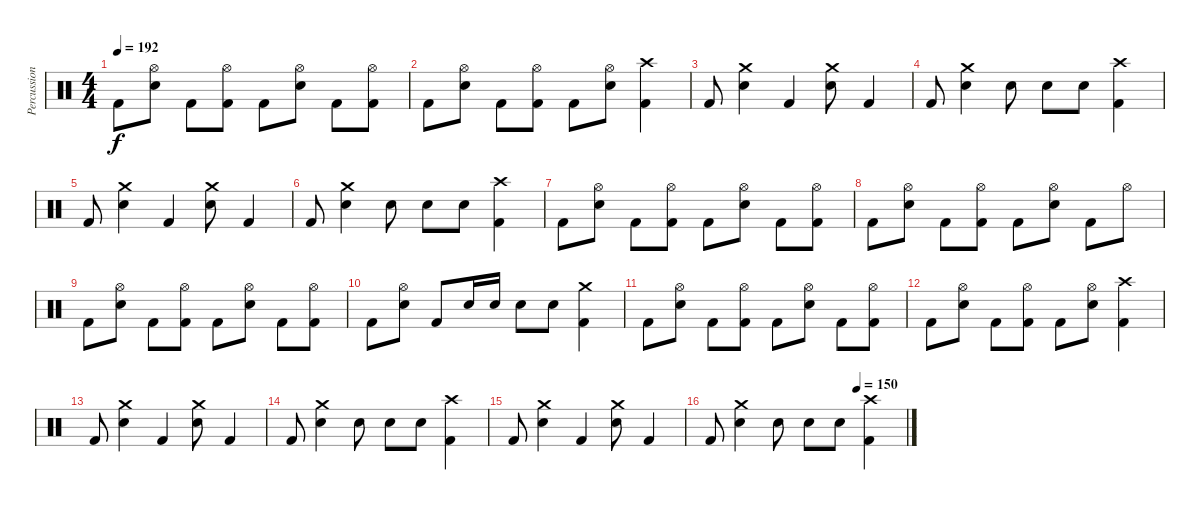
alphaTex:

\track ("Percussion" "Percussion") {instrument percussion}
\staff {score}
\articulation defaults
\ts (4 4)
\tempo 192
\clef neutral
\ks c "Kick (hit) 2".8{dy f}
("Hi-Hat (open)" "Electric Snare (hit)").8 "Kick (hit) 2".8 ("Hi-Hat (open)" "Kick (hit) 2").8 "Kick (hit) 2".8 ("Hi-Hat (open)" "Electric Snare (hit)").8 "Kick (hit) 2".8 ("Hi-Hat (open)" "Kick (hit) 2").8 |
"Kick (hit) 2".8 ("Hi-Hat (open)" "Electric Snare (hit)").8 "Kick (hit) 2".8 ("Hi-Hat (open)" "Kick (hit) 2").8 "Kick (hit) 2".8 ("Hi-Hat (open)" "Electric Snare (hit)").8 ("Crash high (hit)" "Kick (hit) 2").4 |
"Kick (hit) 2".8 ("Crash medium (hit)" "Electric Snare (hit)").4 "Kick (hit) 2".4 ("Crash medium (hit)" "Electric Snare (hit)").8 "Kick (hit) 2".4 |
"Kick (hit) 2".8 ("Crash medium (hit)" "Electric Snare (hit)").4 "Electric Snare (hit)".8 "Electric Snare (hit)".8 "Electric Snare (hit)".8 ("Crash high (hit)" "Kick (hit) 2").4 |
"Kick (hit) 2".8 ("Crash medium (hit)" "Electric Snare (hit)").4 "Kick (hit) 2".4 ("Crash medium (hit)" "Electric Snare (hit)").8 "Kick (hit) 2".4 |
"Kick (hit) 2".8 ("Crash medium (hit)" "Electric Snare (hit)").4 "Electric Snare (hit)".8 "Electric Snare (hit)".8 "Electric Snare (hit)".8 ("Crash high (hit)" "Kick (hit) 2").4 |
"Kick (hit) 2".8 ("Hi-Hat (open)" "Electric Snare (hit)").8 "Kick (hit) 2".8 ("Hi-Hat (open)" "Kick (hit) 2").8 "Kick (hit) 2".8 ("Hi-Hat (open)" "Electric Snare (hit)").8 "Kick (hit) 2".8 ("Hi-Hat (open)" "Kick (hit) 2").8 |
"Kick (hit) 2".8 ("Hi-Hat (open)" "Electric Snare (hit)").8 "Kick (hit) 2".8 ("Hi-Hat (open)" "Kick (hit) 2").8 "Kick (hit) 2".8 ("Hi-Hat (open)" "Electric Snare (hit)").8 "Kick (hit) 2".8 "Hi-Hat (open)".8 |
"Kick (hit) 2".8 ("Hi-Hat (open)" "Electric Snare (hit)").8 "Kick (hit) 2".8 ("Hi-Hat (open)" "Kick (hit) 2").8 "Kick (hit) 2".8 ("Hi-Hat (open)" "Electric Snare (hit)").8 "Kick (hit) 2".8 ("Hi-Hat (open)" "Kick (hit) 2").8 |
"Kick (hit) 2".8 ("Hi-Hat (open)" "Electric Snare (hit)").8 "Kick (hit) 2".8 "Electric Snare (hit)".16 "Electric Snare (hit)".16 "Electric Snare (hit)".8 "Electric Snare (hit)".8 ("Crash medium (hit)" "Kick (hit) 2").4 |
"Kick (hit) 2".8 ("Hi-Hat (open)" "Electric Snare (hit)").8 "Kick (hit) 2".8 ("Hi-Hat (open)" "Kick (hit) 2").8 "Kick (hit) 2".8 ("Hi-Hat (open)" "Electric Snare (hit)").8 "Kick (hit) 2".8 ("Hi-Hat (open)" "Kick (hit) 2").8 |
"Kick (hit) 2".8 ("Hi-Hat (open)" "Electric Snare (hit)").8 "Kick (hit) 2".8 ("Hi-Hat (open)" "Kick (hit) 2").8 "Kick (hit) 2".8 ("Hi-Hat (open)" "Electric Snare (hit)").8 ("Crash high (hit)" "Kick (hit) 2").4 |
"Kick (hit) 2".8 ("Crash medium (hit)" "Electric Snare (hit)").4 "Kick (hit) 2".4 ("Crash medium (hit)" "Electric Snare (hit)").8 "Kick (hit) 2".4 |
"Kick (hit) 2".8 ("Crash medium (hit)" "Electric Snare (hit)").4 "Electric Snare (hit)".8 "Electric Snare (hit)".8 "Electric Snare (hit)".8 ("Crash high (hit)" "Kick (hit) 2").4 |
"Kick (hit) 2".8 ("Crash medium (hit)" "Electric Snare (hit)").4 "Kick (hit) 2".4 ("Crash medium (hit)" "Electric Snare (hit)").8 "Kick (hit) 2".4 |
\tempo (150 0.75)
"Kick (hit) 2".8 ("Crash medium (hit)" "Electric Snare (hit)").4 "Electric Snare (hit)".8 "Electric Snare (hit)".8 "Electric Snare (hit)".8 ("Crash high (hit)" "Kick (hit) 2").4
